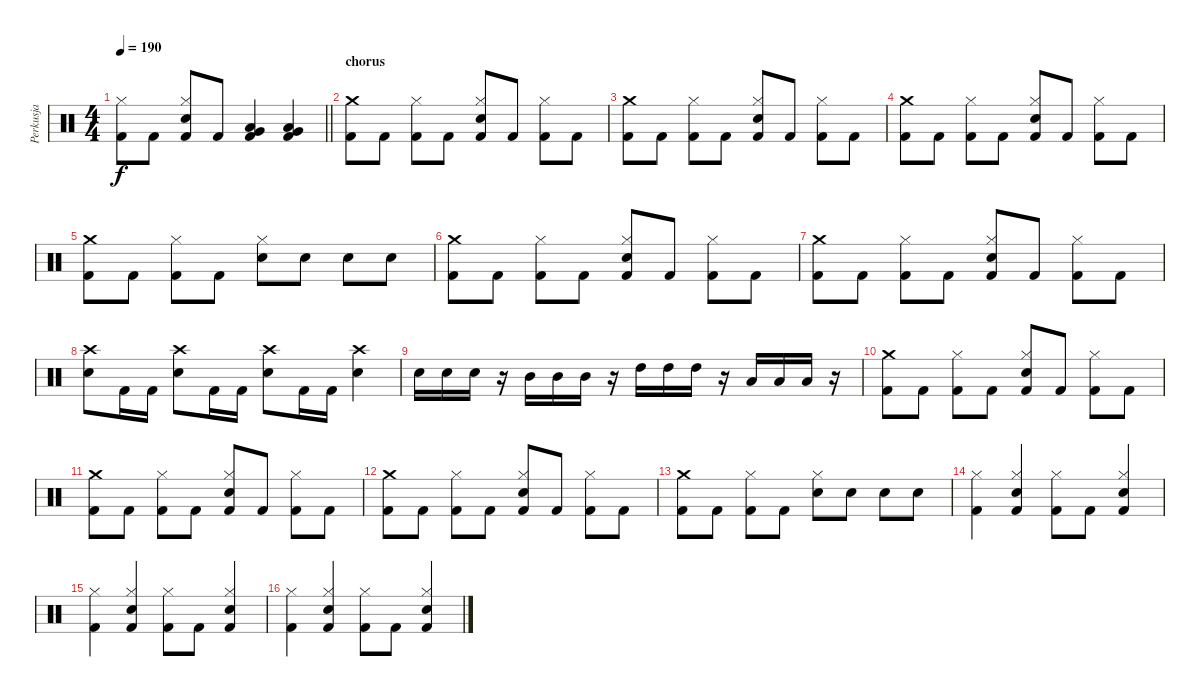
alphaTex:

\track ("Perkusja" "Perkusja") {instrument percussion}
\staff {score}
\articulation defaults
\ts (4 4)
\tempo 190
\clef neutral
\barLineRight lightlight
\ks c
("Kick (hit) 2" "Hi-Hat (closed)").8{dy f} "Kick (hit) 2".8 ("Kick (hit) 2" "Snare (hit) 2" "Hi-Hat (closed)").8 "Kick (hit) 2".8 ("Low Floor Tom (hit)" "Very Low Tom (hit)" "Kick (hit) 2").4 ("Low Floor Tom (hit)" "Very Low Tom (hit)" "Kick (hit) 2").4 |
\section ("" "chorus")
("Kick (hit) 2" "Crash medium (hit)").8 "Kick (hit) 2".8 ("Kick (hit) 2" "Hi-Hat (closed)").8 "Kick (hit) 2".8 ("Kick (hit) 2" "Hi-Hat (closed)" "Snare (hit) 2").8 "Kick (hit) 2".8 ("Kick (hit) 2" "Hi-Hat (closed)").8 "Kick (hit) 2".8 |
("Kick (hit) 2" "Crash medium (hit)").8 "Kick (hit) 2".8 ("Kick (hit) 2" "Hi-Hat (closed)").8 "Kick (hit) 2".8 ("Kick (hit) 2" "Hi-Hat (closed)" "Snare (hit) 2").8 "Kick (hit) 2".8 ("Kick (hit) 2" "Hi-Hat (closed)").8 "Kick (hit) 2".8 |
("Kick (hit) 2" "Crash medium (hit)").8 "Kick (hit) 2".8 ("Kick (hit) 2" "Hi-Hat (closed)").8 "Kick (hit) 2".8 ("Kick (hit) 2" "Hi-Hat (closed)" "Snare (hit) 2").8 "Kick (hit) 2".8 ("Kick (hit) 2" "Hi-Hat (closed)").8 "Kick (hit) 2".8 |
("Kick (hit) 2" "Crash medium (hit)").8 "Kick (hit) 2".8 ("Kick (hit) 2" "Hi-Hat (closed)").8 "Kick (hit) 2".8 ("Snare (hit) 2" "Hi-Hat (closed)").8 "Snare (hit) 2".8 "Snare (hit) 2".8 "Snare (hit) 2".8 |
("Kick (hit) 2" "Crash medium (hit)").8 "Kick (hit) 2".8 ("Kick (hit) 2" "Hi-Hat (closed)").8 "Kick (hit) 2".8 ("Kick (hit) 2" "Hi-Hat (closed)" "Snare (hit) 2").8 "Kick (hit) 2".8 ("Kick (hit) 2" "Hi-Hat (closed)").8 "Kick (hit) 2".8 |
("Kick (hit) 2" "Crash medium (hit)").8 "Kick (hit) 2".8 ("Kick (hit) 2" "Hi-Hat (closed)").8 "Kick (hit) 2".8 ("Kick (hit) 2" "Hi-Hat (closed)" "Snare (hit) 2").8 "Kick (hit) 2".8 ("Kick (hit) 2" "Hi-Hat (closed)").8 "Kick (hit) 2".8 |
("Crash high (hit)" "Snare (hit) 2").8 "Kick (hit) 2".16 "Kick (hit) 2".16 ("Crash high (hit)" "Snare (hit) 2").8 "Kick (hit) 2".16 "Kick (hit) 2".16 ("Crash high (hit)" "Snare (hit) 2").8 "Kick (hit) 2".16 "Kick (hit) 2".16 ("Crash high (hit)" "Snare (hit) 2").4 |
"Snare (hit) 2".16 "Snare (hit) 2".16 "Snare (hit) 2".16 r.16 "Mid Tom (hit)".16 "Mid Tom (hit)".16 "Mid Tom (hit)".16 r.16 "High Tom (hit)".16 "High Tom (hit)".16 "High Tom (hit)".16 r.16 "Low Tom (hit)".16 "Low Tom (hit)".16 "Low Tom (hit)".16 r.16 |
("Kick (hit) 2" "Crash medium (hit)").8 "Kick (hit) 2".8 ("Kick (hit) 2" "Hi-Hat (closed)").8 "Kick (hit) 2".8 ("Kick (hit) 2" "Hi-Hat (closed)" "Snare (hit) 2").8 "Kick (hit) 2".8 ("Kick (hit) 2" "Hi-Hat (closed)").8 "Kick (hit) 2".8 |
("Kick (hit) 2" "Crash medium (hit)").8 "Kick (hit) 2".8 ("Kick (hit) 2" "Hi-Hat (closed)").8 "Kick (hit) 2".8 ("Kick (hit) 2" "Hi-Hat (closed)" "Snare (hit) 2").8 "Kick (hit) 2".8 ("Kick (hit) 2" "Hi-Hat (closed)").8 "Kick (hit) 2".8 |
("Kick (hit) 2" "Crash medium (hit)").8 "Kick (hit) 2".8 ("Kick (hit) 2" "Hi-Hat (closed)").8 "Kick (hit) 2".8 ("Kick (hit) 2" "Hi-Hat (closed)" "Snare (hit) 2").8 "Kick (hit) 2".8 ("Kick (hit) 2" "Hi-Hat (closed)").8 "Kick (hit) 2".8 |
("Kick (hit) 2" "Crash medium (hit)").8 "Kick (hit) 2".8 ("Kick (hit) 2" "Hi-Hat (closed)").8 "Kick (hit) 2".8 ("Snare (hit) 2" "Hi-Hat (closed)").8 "Snare (hit) 2".8 "Snare (hit) 2".8 "Snare (hit) 2".8 |
("Kick (hit) 2" "Hi-Hat (closed)").4 ("Kick (hit) 2" "Hi-Hat (closed)" "Snare (hit) 2").4 ("Kick (hit) 2" "Hi-Hat (closed)").8 "Kick (hit) 2".8 ("Kick (hit) 2" "Hi-Hat (closed)" "Snare (hit) 2").4 |
("Kick (hit) 2" "Hi-Hat (closed)").4 ("Kick (hit) 2" "Hi-Hat (closed)" "Snare (hit) 2").4 ("Kick (hit) 2" "Hi-Hat (closed)").8 "Kick (hit) 2".8 ("Kick (hit) 2" "Hi-Hat (closed)" "Snare (hit) 2").4 |
("Kick (hit) 2" "Hi-Hat (closed)").4 ("Kick (hit) 2" "Hi-Hat (closed)" "Snare (hit) 2").4 ("Kick (hit) 2" "Hi-Hat (closed)").8 "Kick (hit) 2".8 ("Kick (hit) 2" "Hi-Hat (closed)" "Snare (hit) 2").4
